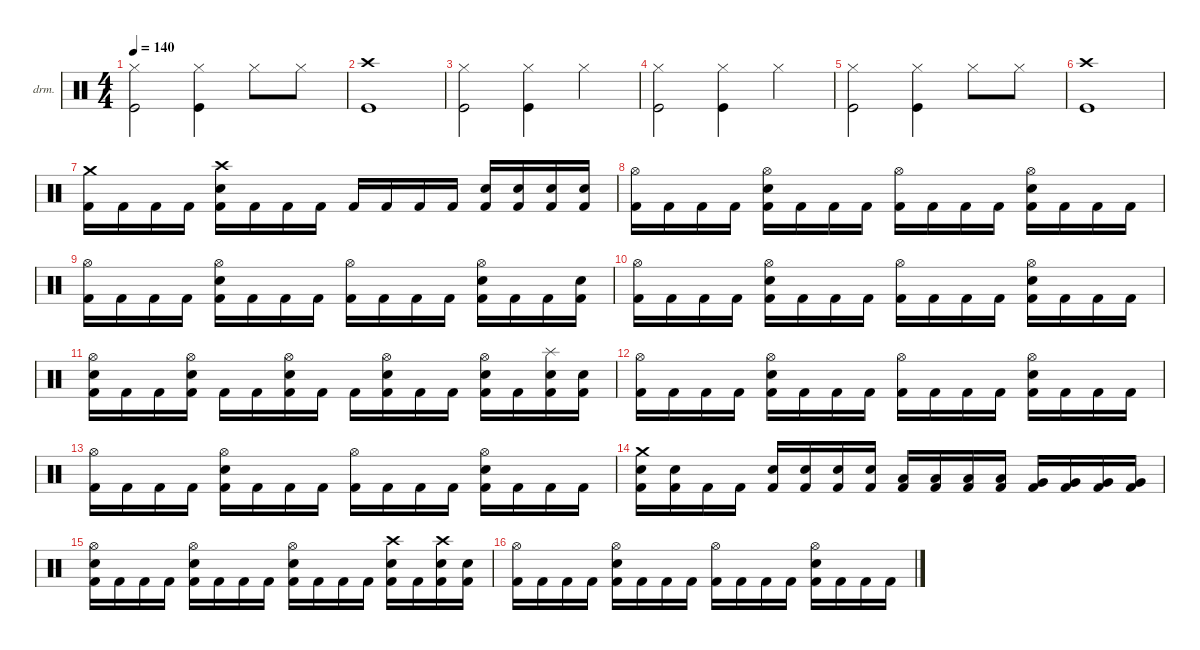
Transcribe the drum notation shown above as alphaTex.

\defaultSystemsLayout 4
\hideDynamics
\bracketExtendMode nobrackets
\firstSystemTrackNameOrientation horizontal
\otherSystemsTrackNameOrientation horizontal
\track ("Drumkit" "drm.") {instrument percussion}
\staff {score}
\articulation defaults
\ts (4 4)
\tempo 140
\clef neutral
\ks c
("Kick (hit)" "Hi-Hat (closed)").2{dy mf} ("Kick (hit)" "Hi-Hat (closed)").4 "Hi-Hat (closed)".8 "Hi-Hat (closed)".8 |
("Crash high (hit)" "Kick (hit)").1 |
("Kick (hit)" "Hi-Hat (closed)").2 ("Kick (hit)" "Hi-Hat (closed)").4 "Hi-Hat (closed)".4 |
("Kick (hit)" "Hi-Hat (closed)").2 ("Kick (hit)" "Hi-Hat (closed)").4 "Hi-Hat (closed)".4 |
("Kick (hit)" "Hi-Hat (closed)").2 ("Kick (hit)" "Hi-Hat (closed)").4 "Hi-Hat (closed)".8 "Hi-Hat (closed)".8 |
("Crash high (hit)" "Kick (hit)").1 |
("Crash medium (hit)" "Kick (hit) 2").16{dy f} "Kick (hit) 2".16 "Kick (hit) 2".16 "Kick (hit) 2".16 ("Crash high (hit)" "Snare (hit) 2" "Kick (hit) 2").16 "Kick (hit) 2".16 "Kick (hit) 2".16 "Kick (hit) 2".16 "Kick (hit) 2".16 "Kick (hit) 2".16 "Kick (hit) 2".16 "Kick (hit) 2".16 ("Snare (hit) 2" "Kick (hit) 2").16 ("Snare (hit) 2" "Kick (hit) 2").16 ("Snare (hit) 2" "Kick (hit) 2").16 ("Snare (hit) 2" "Kick (hit) 2").16 |
("Hi-Hat (open)" "Kick (hit) 2").16{dy ff} "Kick (hit) 2".16 "Kick (hit) 2".16 "Kick (hit) 2".16 ("Hi-Hat (open)" "Snare (hit) 2" "Kick (hit) 2").16 "Kick (hit) 2".16 "Kick (hit) 2".16 "Kick (hit) 2".16 ("Hi-Hat (open)" "Kick (hit) 2").16 "Kick (hit) 2".16 "Kick (hit) 2".16 "Kick (hit) 2".16 ("Hi-Hat (open)" "Snare (hit) 2" "Kick (hit) 2").16 "Kick (hit) 2".16 "Kick (hit) 2".16 "Kick (hit) 2".16 |
("Hi-Hat (open)" "Kick (hit) 2").16 "Kick (hit) 2".16 "Kick (hit) 2".16 "Kick (hit) 2".16 ("Hi-Hat (open)" "Snare (hit) 2" "Kick (hit) 2").16 "Kick (hit) 2".16 "Kick (hit) 2".16 "Kick (hit) 2".16 ("Hi-Hat (open)" "Kick (hit) 2").16 "Kick (hit) 2".16 "Kick (hit) 2".16 "Kick (hit) 2".16 ("Hi-Hat (open)" "Snare (hit) 2" "Kick (hit) 2").16 "Kick (hit) 2".16 "Kick (hit) 2".16 ("Snare (hit) 2" "Kick (hit) 2").16 |
("Hi-Hat (open)" "Kick (hit) 2").16 "Kick (hit) 2".16 "Kick (hit) 2".16 "Kick (hit) 2".16 ("Hi-Hat (open)" "Snare (hit) 2" "Kick (hit) 2").16 "Kick (hit) 2".16 "Kick (hit) 2".16 "Kick (hit) 2".16 ("Hi-Hat (open)" "Kick (hit) 2").16 "Kick (hit) 2".16 "Kick (hit) 2".16 "Kick (hit) 2".16 ("Hi-Hat (open)" "Snare (hit) 2" "Kick (hit) 2").16 "Kick (hit) 2".16 "Kick (hit) 2".16 "Kick (hit) 2".16 |
("Hi-Hat (open)" "Snare (hit) 2" "Kick (hit) 2").16 "Kick (hit) 2".16 "Kick (hit) 2".16 ("Hi-Hat (open)" "Snare (hit) 2" "Kick (hit) 2").16 "Kick (hit) 2".16 "Kick (hit) 2".16 ("Hi-Hat (open)" "Snare (hit) 2" "Kick (hit) 2").16 "Kick (hit) 2".16 "Kick (hit) 2".16 ("Hi-Hat (open)" "Snare (hit) 2" "Kick (hit) 2").16 "Kick (hit) 2".16 "Kick (hit) 2".16 ("Hi-Hat (open)" "Snare (hit) 2" "Kick (hit) 2").16 "Kick (hit) 2".16 ("Splash (hit)" "Snare (hit) 2" "Kick (hit) 2").16 ("Snare (hit) 2" "Kick (hit) 2").16 |
("Hi-Hat (open)" "Kick (hit) 2").16 "Kick (hit) 2".16 "Kick (hit) 2".16 "Kick (hit) 2".16 ("Hi-Hat (open)" "Snare (hit) 2" "Kick (hit) 2").16 "Kick (hit) 2".16 "Kick (hit) 2".16 "Kick (hit) 2".16 ("Hi-Hat (open)" "Kick (hit) 2").16 "Kick (hit) 2".16 "Kick (hit) 2".16 "Kick (hit) 2".16 ("Hi-Hat (open)" "Snare (hit) 2" "Kick (hit) 2").16 "Kick (hit) 2".16 "Kick (hit) 2".16 "Kick (hit) 2".16 |
("Hi-Hat (open)" "Kick (hit) 2").16 "Kick (hit) 2".16 "Kick (hit) 2".16 "Kick (hit) 2".16 ("Hi-Hat (open)" "Snare (hit) 2" "Kick (hit) 2").16 "Kick (hit) 2".16 "Kick (hit) 2".16 "Kick (hit) 2".16 ("Hi-Hat (open)" "Kick (hit) 2").16 "Kick (hit) 2".16 "Kick (hit) 2".16 "Kick (hit) 2".16 ("Hi-Hat (open)" "Snare (hit) 2" "Kick (hit) 2").16 "Kick (hit) 2".16 "Kick (hit) 2".16 "Kick (hit) 2".16 |
("Crash medium (hit)" "Snare (hit) 2" "Kick (hit) 2").16{dy mf} ("Snare (hit) 2" "Kick (hit) 2").16 "Kick (hit) 2".16 "Kick (hit) 2".16 ("Snare (hit) 2" "Kick (hit) 2").16 ("Snare (hit) 2" "Kick (hit) 2").16 ("Snare (hit) 2" "Kick (hit) 2").16 ("Snare (hit) 2" "Kick (hit) 2").16 ("Low Tom (hit)" "Kick (hit) 2").16 ("Low Tom (hit)" "Kick (hit) 2").16 ("Low Tom (hit)" "Kick (hit) 2").16 ("Low Tom (hit)" "Kick (hit) 2").16 ("Very Low Tom (hit)" "Kick (hit) 2").16 ("Very Low Tom (hit)" "Kick (hit) 2").16 ("Very Low Tom (hit)" "Kick (hit) 2").16 ("Very Low Tom (hit)" "Kick (hit) 2").16 |
("Hi-Hat (open)" "Snare (hit) 2" "Kick (hit) 2").16 "Kick (hit) 2".16 "Kick (hit) 2".16 "Kick (hit) 2".16 ("Hi-Hat (open)" "Snare (hit) 2" "Kick (hit) 2").16 "Kick (hit) 2".16 "Kick (hit) 2".16 "Kick (hit) 2".16 ("Hi-Hat (open)" "Snare (hit) 2" "Kick (hit) 2").16 "Kick (hit) 2".16 "Kick (hit) 2".16 "Kick (hit) 2".16 ("Crash high (hit)" "Snare (hit) 2" "Kick (hit) 2").16 "Kick (hit) 2".16 ("Crash high (hit)" "Snare (hit) 2" "Kick (hit) 2").16 ("Snare (hit) 2" "Kick (hit) 2").16 |
("Hi-Hat (open)" "Kick (hit) 2").16{dy ff} "Kick (hit) 2".16 "Kick (hit) 2".16 "Kick (hit) 2".16 ("Hi-Hat (open)" "Snare (hit) 2" "Kick (hit) 2").16 "Kick (hit) 2".16 "Kick (hit) 2".16 "Kick (hit) 2".16 ("Hi-Hat (open)" "Kick (hit) 2").16 "Kick (hit) 2".16 "Kick (hit) 2".16 "Kick (hit) 2".16 ("Hi-Hat (open)" "Snare (hit) 2" "Kick (hit) 2").16 "Kick (hit) 2".16 "Kick (hit) 2".16 "Kick (hit) 2".16
